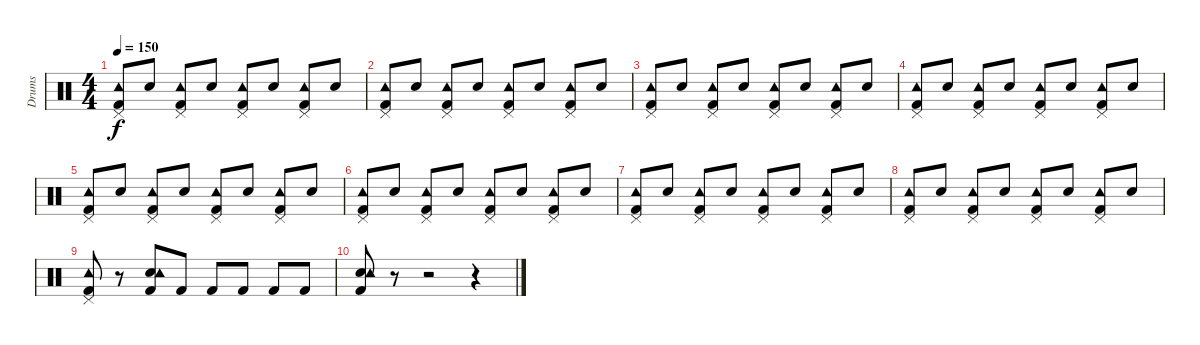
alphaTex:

\track ("Drums" "Drums") {instrument percussion}
\staff {score}
\articulation defaults
\ts (4 4)
\tempo 150
\clef neutral
\ks c
("Kick (hit) 2" "Pedal Hi-Hat (hit)" "Tambourine (hit)").8{dy f} "Snare (hit) 2".8 ("Kick (hit) 2" "Pedal Hi-Hat (hit)" "Tambourine (hit)").8 "Snare (hit) 2".8 ("Kick (hit) 2" "Pedal Hi-Hat (hit)" "Tambourine (hit)").8 "Snare (hit) 2".8 ("Kick (hit) 2" "Pedal Hi-Hat (hit)" "Tambourine (hit)").8 "Snare (hit) 2".8 |
("Kick (hit) 2" "Pedal Hi-Hat (hit)" "Tambourine (hit)").8 "Snare (hit) 2".8 ("Kick (hit) 2" "Pedal Hi-Hat (hit)" "Tambourine (hit)").8 "Snare (hit) 2".8 ("Kick (hit) 2" "Pedal Hi-Hat (hit)" "Tambourine (hit)").8 "Snare (hit) 2".8 ("Kick (hit) 2" "Pedal Hi-Hat (hit)" "Tambourine (hit)").8 "Snare (hit) 2".8 |
("Kick (hit) 2" "Pedal Hi-Hat (hit)" "Tambourine (hit)").8 "Snare (hit) 2".8 ("Kick (hit) 2" "Pedal Hi-Hat (hit)" "Tambourine (hit)").8 "Snare (hit) 2".8 ("Kick (hit) 2" "Pedal Hi-Hat (hit)" "Tambourine (hit)").8 "Snare (hit) 2".8 ("Kick (hit) 2" "Pedal Hi-Hat (hit)" "Tambourine (hit)").8 "Snare (hit) 2".8 |
("Kick (hit) 2" "Pedal Hi-Hat (hit)" "Tambourine (hit)").8 "Snare (hit) 2".8 ("Kick (hit) 2" "Pedal Hi-Hat (hit)" "Tambourine (hit)").8 "Snare (hit) 2".8 ("Kick (hit) 2" "Pedal Hi-Hat (hit)" "Tambourine (hit)").8 "Snare (hit) 2".8 ("Kick (hit) 2" "Pedal Hi-Hat (hit)" "Tambourine (hit)").8 "Snare (hit) 2".8 |
("Kick (hit) 2" "Pedal Hi-Hat (hit)" "Tambourine (hit)").8 "Snare (hit) 2".8 ("Kick (hit) 2" "Pedal Hi-Hat (hit)" "Tambourine (hit)").8 "Snare (hit) 2".8 ("Kick (hit) 2" "Pedal Hi-Hat (hit)" "Tambourine (hit)").8 "Snare (hit) 2".8 ("Kick (hit) 2" "Pedal Hi-Hat (hit)" "Tambourine (hit)").8 "Snare (hit) 2".8 |
("Kick (hit) 2" "Pedal Hi-Hat (hit)" "Tambourine (hit)").8 "Snare (hit) 2".8 ("Kick (hit) 2" "Pedal Hi-Hat (hit)" "Tambourine (hit)").8 "Snare (hit) 2".8 ("Kick (hit) 2" "Pedal Hi-Hat (hit)" "Tambourine (hit)").8 "Snare (hit) 2".8 ("Kick (hit) 2" "Pedal Hi-Hat (hit)" "Tambourine (hit)").8 "Snare (hit) 2".8 |
("Kick (hit) 2" "Pedal Hi-Hat (hit)" "Tambourine (hit)").8 "Snare (hit) 2".8 ("Kick (hit) 2" "Pedal Hi-Hat (hit)" "Tambourine (hit)").8 "Snare (hit) 2".8 ("Kick (hit) 2" "Pedal Hi-Hat (hit)" "Tambourine (hit)").8 "Snare (hit) 2".8 ("Kick (hit) 2" "Pedal Hi-Hat (hit)" "Tambourine (hit)").8 "Snare (hit) 2".8 |
("Kick (hit) 2" "Pedal Hi-Hat (hit)" "Tambourine (hit)").8 "Snare (hit) 2".8 ("Kick (hit) 2" "Pedal Hi-Hat (hit)" "Tambourine (hit)").8 "Snare (hit) 2".8 ("Kick (hit) 2" "Pedal Hi-Hat (hit)" "Tambourine (hit)").8 "Snare (hit) 2".8 ("Kick (hit) 2" "Pedal Hi-Hat (hit)" "Tambourine (hit)").8 "Snare (hit) 2".8 |
("Kick (hit) 2" "Pedal Hi-Hat (hit)" "Tambourine (hit)").8 r.8 ("Snare (hit) 2" "Kick (hit) 2" "Tambourine (hit)").8 "Kick (hit) 2".8 "Kick (hit) 2".8 "Kick (hit) 2".8 "Kick (hit) 2".8 "Kick (hit) 2".8 |
("Snare (hit) 2" "Kick (hit) 2" "Tambourine (hit)").8 r.8 r.2 r.4
